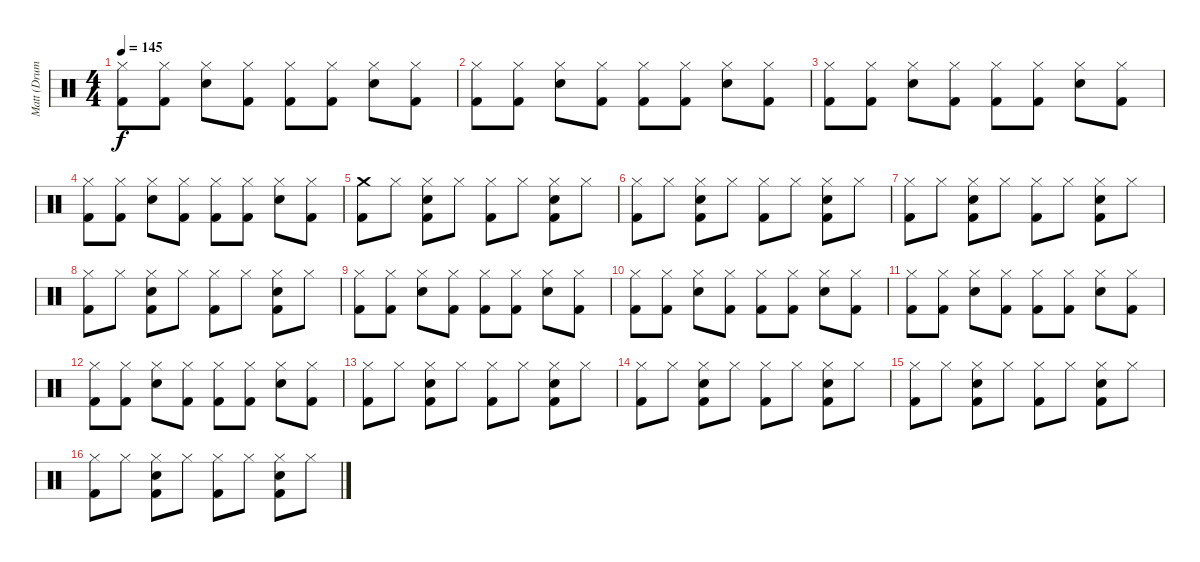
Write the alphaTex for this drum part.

\track ("Matt (Drums)" "Matt (Drum") {instrument percussion}
\staff {score}
\articulation defaults
\ts (4 4)
\tempo 145
\clef neutral
\ks c
("Hi-Hat (closed)" "Kick (hit) 2").8{dy f} ("Hi-Hat (closed)" "Kick (hit) 2").8 ("Hi-Hat (closed)" "Electric Snare (hit)").8 ("Hi-Hat (closed)" "Kick (hit) 2").8 ("Hi-Hat (closed)" "Kick (hit) 2").8 ("Hi-Hat (closed)" "Kick (hit) 2").8 ("Hi-Hat (closed)" "Electric Snare (hit)").8 ("Hi-Hat (closed)" "Kick (hit) 2").8 |
("Hi-Hat (closed)" "Kick (hit) 2").8 ("Hi-Hat (closed)" "Kick (hit) 2").8 ("Hi-Hat (closed)" "Electric Snare (hit)").8 ("Hi-Hat (closed)" "Kick (hit) 2").8 ("Hi-Hat (closed)" "Kick (hit) 2").8 ("Hi-Hat (closed)" "Kick (hit) 2").8 ("Hi-Hat (closed)" "Electric Snare (hit)").8 ("Hi-Hat (closed)" "Kick (hit) 2").8 |
("Hi-Hat (closed)" "Kick (hit) 2").8 ("Hi-Hat (closed)" "Kick (hit) 2").8 ("Hi-Hat (closed)" "Electric Snare (hit)").8 ("Hi-Hat (closed)" "Kick (hit) 2").8 ("Hi-Hat (closed)" "Kick (hit) 2").8 ("Hi-Hat (closed)" "Kick (hit) 2").8 ("Hi-Hat (closed)" "Electric Snare (hit)").8 ("Hi-Hat (closed)" "Kick (hit) 2").8 |
("Hi-Hat (closed)" "Kick (hit) 2").8 ("Hi-Hat (closed)" "Kick (hit) 2").8 ("Hi-Hat (closed)" "Electric Snare (hit)").8 ("Hi-Hat (closed)" "Kick (hit) 2").8 ("Hi-Hat (closed)" "Kick (hit) 2").8 ("Hi-Hat (closed)" "Kick (hit) 2").8 ("Hi-Hat (closed)" "Electric Snare (hit)").8 ("Hi-Hat (closed)" "Kick (hit) 2").8 |
("Crash medium (hit)" "Kick (hit) 2").8 "Hi-Hat (closed)".8 ("Hi-Hat (closed)" "Electric Snare (hit)" "Kick (hit) 2").8 "Hi-Hat (closed)".8 ("Hi-Hat (closed)" "Kick (hit) 2").8 "Hi-Hat (closed)".8 ("Hi-Hat (closed)" "Electric Snare (hit)" "Kick (hit) 2").8 "Hi-Hat (closed)".8 |
("Hi-Hat (closed)" "Kick (hit) 2").8 "Hi-Hat (closed)".8 ("Hi-Hat (closed)" "Electric Snare (hit)" "Kick (hit) 2").8 "Hi-Hat (closed)".8 ("Hi-Hat (closed)" "Kick (hit) 2").8 "Hi-Hat (closed)".8 ("Hi-Hat (closed)" "Electric Snare (hit)" "Kick (hit) 2").8 "Hi-Hat (closed)".8 |
("Hi-Hat (closed)" "Kick (hit) 2").8 "Hi-Hat (closed)".8 ("Hi-Hat (closed)" "Electric Snare (hit)" "Kick (hit) 2").8 "Hi-Hat (closed)".8 ("Hi-Hat (closed)" "Kick (hit) 2").8 "Hi-Hat (closed)".8 ("Hi-Hat (closed)" "Electric Snare (hit)" "Kick (hit) 2").8 "Hi-Hat (closed)".8 |
("Hi-Hat (closed)" "Kick (hit) 2").8 "Hi-Hat (closed)".8 ("Hi-Hat (closed)" "Electric Snare (hit)" "Kick (hit) 2").8 "Hi-Hat (closed)".8 ("Hi-Hat (closed)" "Kick (hit) 2").8 "Hi-Hat (closed)".8 ("Hi-Hat (closed)" "Electric Snare (hit)" "Kick (hit) 2").8 "Hi-Hat (closed)".8 |
("Hi-Hat (closed)" "Kick (hit) 2").8 ("Hi-Hat (closed)" "Kick (hit) 2").8 ("Hi-Hat (closed)" "Electric Snare (hit)").8 ("Hi-Hat (closed)" "Kick (hit) 2").8 ("Hi-Hat (closed)" "Kick (hit) 2").8 ("Hi-Hat (closed)" "Kick (hit) 2").8 ("Hi-Hat (closed)" "Electric Snare (hit)").8 ("Hi-Hat (closed)" "Kick (hit) 2").8 |
("Hi-Hat (closed)" "Kick (hit) 2").8 ("Hi-Hat (closed)" "Kick (hit) 2").8 ("Hi-Hat (closed)" "Electric Snare (hit)").8 ("Hi-Hat (closed)" "Kick (hit) 2").8 ("Hi-Hat (closed)" "Kick (hit) 2").8 ("Hi-Hat (closed)" "Kick (hit) 2").8 ("Hi-Hat (closed)" "Electric Snare (hit)").8 ("Hi-Hat (closed)" "Kick (hit) 2").8 |
("Hi-Hat (closed)" "Kick (hit) 2").8 ("Hi-Hat (closed)" "Kick (hit) 2").8 ("Hi-Hat (closed)" "Electric Snare (hit)").8 ("Hi-Hat (closed)" "Kick (hit) 2").8 ("Hi-Hat (closed)" "Kick (hit) 2").8 ("Hi-Hat (closed)" "Kick (hit) 2").8 ("Hi-Hat (closed)" "Electric Snare (hit)").8 ("Hi-Hat (closed)" "Kick (hit) 2").8 |
("Hi-Hat (closed)" "Kick (hit) 2").8 ("Hi-Hat (closed)" "Kick (hit) 2").8 ("Hi-Hat (closed)" "Electric Snare (hit)").8 ("Hi-Hat (closed)" "Kick (hit) 2").8 ("Hi-Hat (closed)" "Kick (hit) 2").8 ("Hi-Hat (closed)" "Kick (hit) 2").8 ("Hi-Hat (closed)" "Electric Snare (hit)").8 ("Hi-Hat (closed)" "Kick (hit) 2").8 |
("Hi-Hat (closed)" "Kick (hit) 2").8 "Hi-Hat (closed)".8 ("Hi-Hat (closed)" "Electric Snare (hit)" "Kick (hit) 2").8 "Hi-Hat (closed)".8 ("Hi-Hat (closed)" "Kick (hit) 2").8 "Hi-Hat (closed)".8 ("Hi-Hat (closed)" "Electric Snare (hit)" "Kick (hit) 2").8 "Hi-Hat (closed)".8 |
("Hi-Hat (closed)" "Kick (hit) 2").8 "Hi-Hat (closed)".8 ("Hi-Hat (closed)" "Electric Snare (hit)" "Kick (hit) 2").8 "Hi-Hat (closed)".8 ("Hi-Hat (closed)" "Kick (hit) 2").8 "Hi-Hat (closed)".8 ("Hi-Hat (closed)" "Electric Snare (hit)" "Kick (hit) 2").8 "Hi-Hat (closed)".8 |
("Hi-Hat (closed)" "Kick (hit) 2").8 "Hi-Hat (closed)".8 ("Hi-Hat (closed)" "Electric Snare (hit)" "Kick (hit) 2").8 "Hi-Hat (closed)".8 ("Hi-Hat (closed)" "Kick (hit) 2").8 "Hi-Hat (closed)".8 ("Hi-Hat (closed)" "Electric Snare (hit)" "Kick (hit) 2").8 "Hi-Hat (closed)".8 |
("Hi-Hat (closed)" "Kick (hit) 2").8 "Hi-Hat (closed)".8 ("Hi-Hat (closed)" "Electric Snare (hit)" "Kick (hit) 2").8 "Hi-Hat (closed)".8 ("Hi-Hat (closed)" "Kick (hit) 2").8 "Hi-Hat (closed)".8 ("Hi-Hat (closed)" "Electric Snare (hit)" "Kick (hit) 2").8 "Hi-Hat (closed)".8
